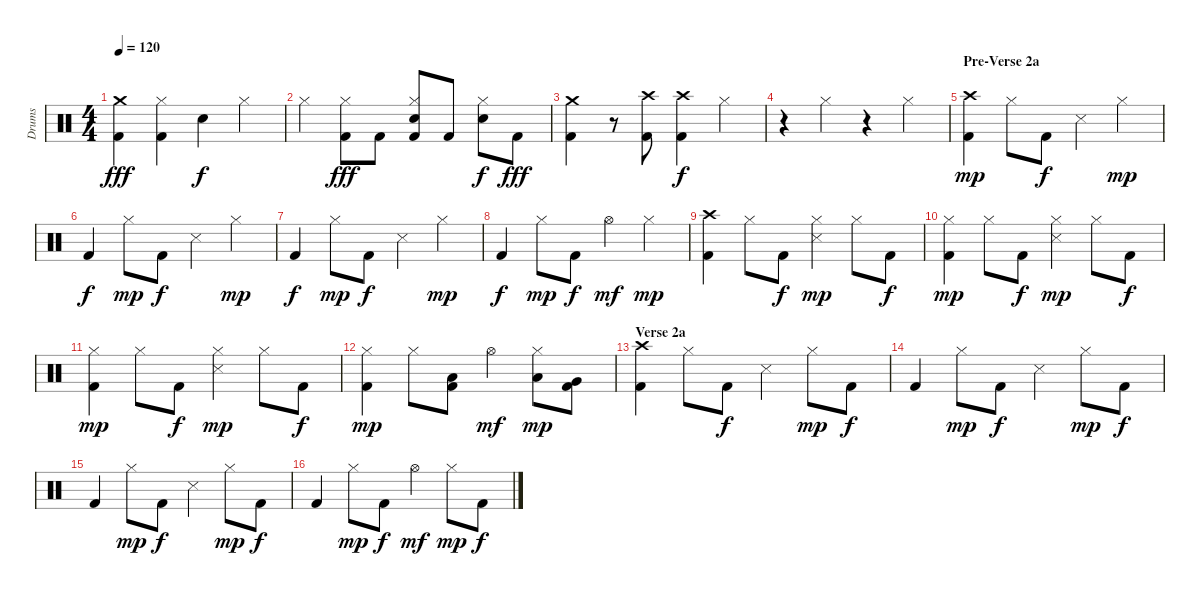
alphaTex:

\track ("Drums" "Drums") {instrument percussion}
\staff {score}
\articulation defaults
\ts (4 4)
\tempo 120
\clef neutral
\ks c
("Kick (hit) 2" "Crash medium (hit)").4{dy fff} ("Kick (hit) 2" "Hi-Hat (closed)").4 "Snare (hit) 2".4{dy f} "Hi-Hat (closed)".4 |
"Hi-Hat (closed)".4 ("Kick (hit) 2" "Hi-Hat (closed)").8{dy fff} "Kick (hit) 2".8 ("Kick (hit) 2" "Hi-Hat (closed)" "Snare (hit) 2").8 "Kick (hit) 2".8 ("Hi-Hat (closed)" "Snare (hit) 2").8{dy f} "Kick (hit) 2".8{dy fff} |
("Kick (hit) 2" "Crash medium (hit)").4 r.8 ("Kick (hit) 2" "Crash high (hit)").8 ("Kick (hit) 2" "Crash high (hit)").4{dy f} "Hi-Hat (closed)".4 |
r.4 "Hi-Hat (closed)".4 r.4 "Hi-Hat (closed)".4 |
\section ("" "Pre-Verse 2a")
("Kick (hit) 2" "Crash high (hit)").4{dy mp} "Hi-Hat (closed)".8 "Kick (hit) 2".8{dy f} "Snare (side stick) 3".4 "Hi-Hat (closed)".4{dy mp} |
"Kick (hit) 2".4{dy f} "Hi-Hat (closed)".8{dy mp} "Kick (hit) 2".8{dy f} "Snare (side stick) 3".4 "Hi-Hat (closed)".4{dy mp} |
"Kick (hit) 2".4{dy f} "Hi-Hat (closed)".8{dy mp} "Kick (hit) 2".8{dy f} "Snare (side stick) 3".4 "Hi-Hat (closed)".4{dy mp} |
"Kick (hit) 2".4{dy f} "Hi-Hat (closed)".8{dy mp} "Kick (hit) 2".8{dy f} "Hi-Hat (open)".4{dy mf} "Hi-Hat (closed)".4{dy mp} |
("Kick (hit) 2" "Crash high (hit)").4 "Hi-Hat (closed)".8 "Kick (hit) 2".8{dy f} ("Hi-Hat (closed)" "Snare (side stick) 3").4{dy mp} "Hi-Hat (closed)".8 "Kick (hit) 2".8{dy f} |
("Kick (hit) 2" "Hi-Hat (closed)").4{dy mp} "Hi-Hat (closed)".8 "Kick (hit) 2".8{dy f} ("Hi-Hat (closed)" "Snare (side stick) 3").4{dy mp} "Hi-Hat (closed)".8 "Kick (hit) 2".8{dy f} |
("Kick (hit) 2" "Hi-Hat (closed)").4{dy mp} "Hi-Hat (closed)".8 "Kick (hit) 2".8{dy f} ("Hi-Hat (closed)" "Snare (side stick) 3").4{dy mp} "Hi-Hat (closed)".8 "Kick (hit) 2".8{dy f} |
("Kick (hit) 2" "Hi-Hat (closed)").4{dy mp} "Hi-Hat (closed)".8 ("Kick (hit) 2" "Low Tom (hit)").8 "Hi-Hat (open)".4{dy mf} ("Hi-Hat (closed)" "Low Tom (hit)").8{dy mp} ("Kick (hit) 2" "Very Low Tom (hit)").8 |
\section ("" "Verse 2a")
("Kick (hit) 2" "Crash high (hit)").4 "Hi-Hat (closed)".8 "Kick (hit) 2".8{dy f} "Snare (side stick) 3".4 "Hi-Hat (closed)".8{dy mp} "Kick (hit) 2".8{dy f} |
"Kick (hit) 2".4 "Hi-Hat (closed)".8{dy mp} "Kick (hit) 2".8{dy f} "Snare (side stick) 3".4 "Hi-Hat (closed)".8{dy mp} "Kick (hit) 2".8{dy f} |
"Kick (hit) 2".4 "Hi-Hat (closed)".8{dy mp} "Kick (hit) 2".8{dy f} "Snare (side stick) 3".4 "Hi-Hat (closed)".8{dy mp} "Kick (hit) 2".8{dy f} |
"Kick (hit) 2".4 "Hi-Hat (closed)".8{dy mp} "Kick (hit) 2".8{dy f} "Hi-Hat (open)".4{dy mf} "Hi-Hat (closed)".8{dy mp} "Kick (hit) 2".8{dy f}
